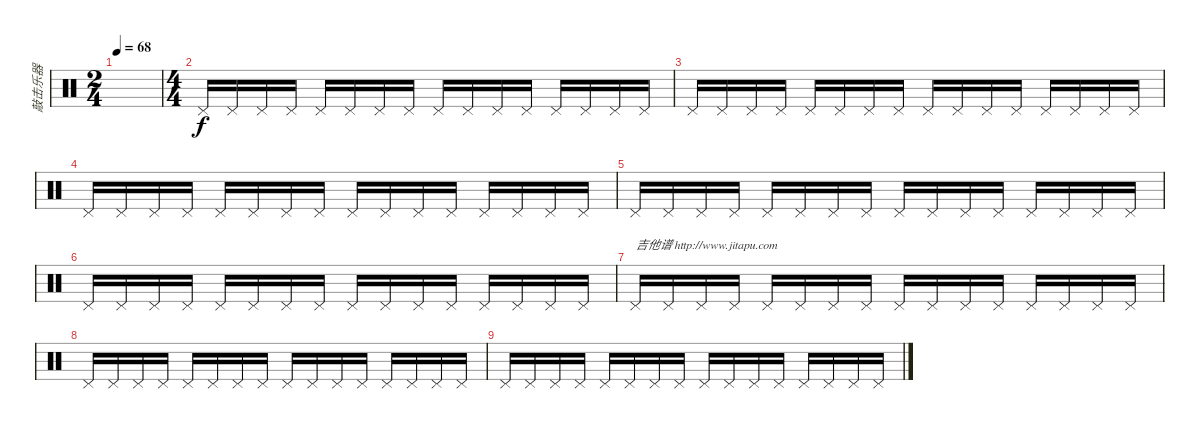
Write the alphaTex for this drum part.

\track ("敲击乐器" "敲击乐器") {instrument percussion}
\staff {score}
\articulation defaults
\ts (2 4)
\tempo 68
\clef neutral
\ks c
|
\ts (4 4)
"Pedal Hi-Hat (hit)".16 "Pedal Hi-Hat (hit)".16 "Pedal Hi-Hat (hit)".16 "Pedal Hi-Hat (hit)".16 "Pedal Hi-Hat (hit)".16 "Pedal Hi-Hat (hit)".16 "Pedal Hi-Hat (hit)".16 "Pedal Hi-Hat (hit)".16 "Pedal Hi-Hat (hit)".16 "Pedal Hi-Hat (hit)".16 "Pedal Hi-Hat (hit)".16 "Pedal Hi-Hat (hit)".16 "Pedal Hi-Hat (hit)".16 "Pedal Hi-Hat (hit)".16 "Pedal Hi-Hat (hit)".16 "Pedal Hi-Hat (hit)".16 |
"Pedal Hi-Hat (hit)".16 "Pedal Hi-Hat (hit)".16 "Pedal Hi-Hat (hit)".16 "Pedal Hi-Hat (hit)".16 "Pedal Hi-Hat (hit)".16 "Pedal Hi-Hat (hit)".16 "Pedal Hi-Hat (hit)".16 "Pedal Hi-Hat (hit)".16 "Pedal Hi-Hat (hit)".16 "Pedal Hi-Hat (hit)".16 "Pedal Hi-Hat (hit)".16 "Pedal Hi-Hat (hit)".16 "Pedal Hi-Hat (hit)".16 "Pedal Hi-Hat (hit)".16 "Pedal Hi-Hat (hit)".16 "Pedal Hi-Hat (hit)".16 |
"Pedal Hi-Hat (hit)".16 "Pedal Hi-Hat (hit)".16 "Pedal Hi-Hat (hit)".16 "Pedal Hi-Hat (hit)".16 "Pedal Hi-Hat (hit)".16 "Pedal Hi-Hat (hit)".16 "Pedal Hi-Hat (hit)".16 "Pedal Hi-Hat (hit)".16 "Pedal Hi-Hat (hit)".16 "Pedal Hi-Hat (hit)".16 "Pedal Hi-Hat (hit)".16 "Pedal Hi-Hat (hit)".16 "Pedal Hi-Hat (hit)".16 "Pedal Hi-Hat (hit)".16 "Pedal Hi-Hat (hit)".16 "Pedal Hi-Hat (hit)".16 |
"Pedal Hi-Hat (hit)".16 "Pedal Hi-Hat (hit)".16 "Pedal Hi-Hat (hit)".16 "Pedal Hi-Hat (hit)".16 "Pedal Hi-Hat (hit)".16 "Pedal Hi-Hat (hit)".16 "Pedal Hi-Hat (hit)".16 "Pedal Hi-Hat (hit)".16 "Pedal Hi-Hat (hit)".16 "Pedal Hi-Hat (hit)".16 "Pedal Hi-Hat (hit)".16 "Pedal Hi-Hat (hit)".16 "Pedal Hi-Hat (hit)".16 "Pedal Hi-Hat (hit)".16 "Pedal Hi-Hat (hit)".16 "Pedal Hi-Hat (hit)".16 |
"Pedal Hi-Hat (hit)".16 "Pedal Hi-Hat (hit)".16 "Pedal Hi-Hat (hit)".16 "Pedal Hi-Hat (hit)".16 "Pedal Hi-Hat (hit)".16 "Pedal Hi-Hat (hit)".16 "Pedal Hi-Hat (hit)".16 "Pedal Hi-Hat (hit)".16 "Pedal Hi-Hat (hit)".16 "Pedal Hi-Hat (hit)".16 "Pedal Hi-Hat (hit)".16 "Pedal Hi-Hat (hit)".16 "Pedal Hi-Hat (hit)".16 "Pedal Hi-Hat (hit)".16 "Pedal Hi-Hat (hit)".16 "Pedal Hi-Hat (hit)".16 |
"Pedal Hi-Hat (hit)".16{txt "吉他谱 http://www.jitapu.com"} "Pedal Hi-Hat (hit)".16 "Pedal Hi-Hat (hit)".16 "Pedal Hi-Hat (hit)".16 "Pedal Hi-Hat (hit)".16 "Pedal Hi-Hat (hit)".16 "Pedal Hi-Hat (hit)".16 "Pedal Hi-Hat (hit)".16 "Pedal Hi-Hat (hit)".16 "Pedal Hi-Hat (hit)".16 "Pedal Hi-Hat (hit)".16 "Pedal Hi-Hat (hit)".16 "Pedal Hi-Hat (hit)".16 "Pedal Hi-Hat (hit)".16 "Pedal Hi-Hat (hit)".16 "Pedal Hi-Hat (hit)".16 |
"Pedal Hi-Hat (hit)".16 "Pedal Hi-Hat (hit)".16 "Pedal Hi-Hat (hit)".16 "Pedal Hi-Hat (hit)".16 "Pedal Hi-Hat (hit)".16 "Pedal Hi-Hat (hit)".16 "Pedal Hi-Hat (hit)".16 "Pedal Hi-Hat (hit)".16 "Pedal Hi-Hat (hit)".16 "Pedal Hi-Hat (hit)".16 "Pedal Hi-Hat (hit)".16 "Pedal Hi-Hat (hit)".16 "Pedal Hi-Hat (hit)".16 "Pedal Hi-Hat (hit)".16 "Pedal Hi-Hat (hit)".16 "Pedal Hi-Hat (hit)".16 |
"Pedal Hi-Hat (hit)".16 "Pedal Hi-Hat (hit)".16 "Pedal Hi-Hat (hit)".16 "Pedal Hi-Hat (hit)".16 "Pedal Hi-Hat (hit)".16 "Pedal Hi-Hat (hit)".16 "Pedal Hi-Hat (hit)".16 "Pedal Hi-Hat (hit)".16 "Pedal Hi-Hat (hit)".16 "Pedal Hi-Hat (hit)".16 "Pedal Hi-Hat (hit)".16 "Pedal Hi-Hat (hit)".16 "Pedal Hi-Hat (hit)".16 "Pedal Hi-Hat (hit)".16 "Pedal Hi-Hat (hit)".16 "Pedal Hi-Hat (hit)".16
